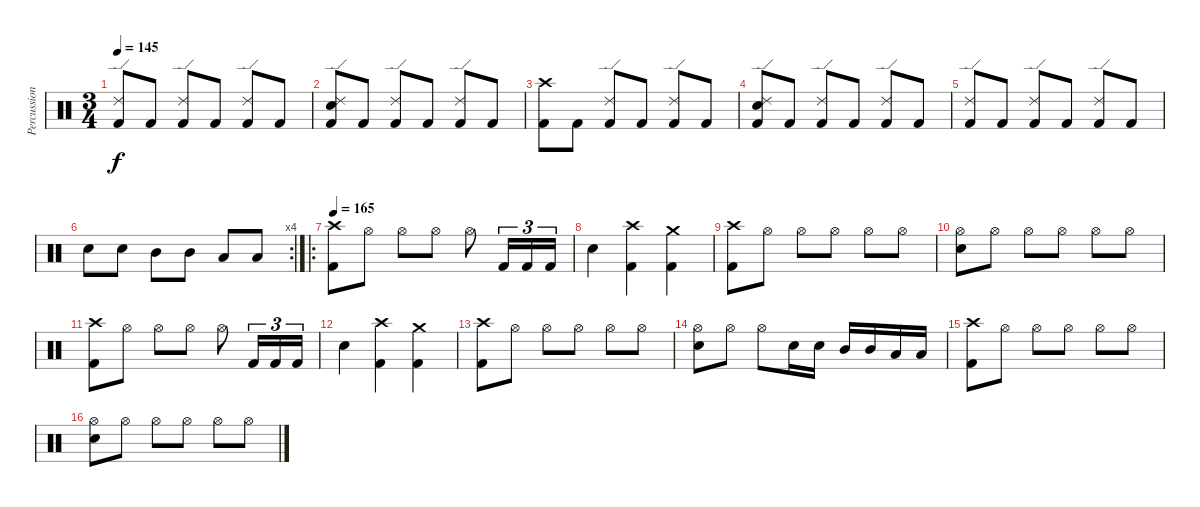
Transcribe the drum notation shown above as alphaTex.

\track ("Percussion" "Percussion") {instrument percussion}
\staff {score}
\articulation defaults
\ts (3 4)
\tempo 145
\clef neutral
\ks c
("Ride (edge) 2" "Kick (hit) 2").8{dy f} "Kick (hit) 2".8 ("Ride (edge) 2" "Kick (hit) 2").8 "Kick (hit) 2".8 ("Ride (edge) 2" "Kick (hit) 2").8 "Kick (hit) 2".8 |
("Ride (edge) 2" "Electric Snare (hit)" "Kick (hit) 2").8 "Kick (hit) 2".8 ("Ride (edge) 2" "Kick (hit) 2").8 "Kick (hit) 2".8 ("Ride (edge) 2" "Kick (hit) 2").8 "Kick (hit) 2".8 |
("Crash high (hit)" "Kick (hit) 2").8 "Kick (hit) 2".8 ("Ride (edge) 2" "Kick (hit) 2").8 "Kick (hit) 2".8 ("Ride (edge) 2" "Kick (hit) 2").8 "Kick (hit) 2".8 |
("Ride (edge) 2" "Electric Snare (hit)" "Kick (hit) 2").8 "Kick (hit) 2".8 ("Ride (edge) 2" "Kick (hit) 2").8 "Kick (hit) 2".8 ("Ride (edge) 2" "Kick (hit) 2").8 "Kick (hit) 2".8 |
("Ride (edge) 2" "Kick (hit) 2").8 "Kick (hit) 2".8 ("Ride (edge) 2" "Kick (hit) 2").8 "Kick (hit) 2".8 ("Ride (edge) 2" "Kick (hit) 2").8 "Kick (hit) 2".8 |
\rc 4 "Electric Snare (hit)".8 "Electric Snare (hit)".8 "Mid Tom (hit)".8 "Mid Tom (hit)".8 "Low Tom (hit)".8 "Low Tom (hit)".8
|
\ro
\tempo 165
("Crash high (hit)" "Kick (hit) 2").8 "Hi-Hat (open)".8 "Hi-Hat (open)".8 "Hi-Hat (open)".8 "Hi-Hat (open)".8 "Kick (hit) 2".16{tu (3 2)} "Kick (hit) 2".16{tu (3 2)} "Kick (hit) 2".16{tu (3 2)} |
"Electric Snare (hit)".4 ("Crash high (hit)" "Kick (hit) 2").4 ("Crash medium (hit)" "Kick (hit) 2").4 |
("Crash high (hit)" "Kick (hit) 2").8 "Hi-Hat (open)".8 "Hi-Hat (open)".8 "Hi-Hat (open)".8 "Hi-Hat (open)".8 "Hi-Hat (open)".8 |
("Hi-Hat (open)" "Electric Snare (hit)").8 "Hi-Hat (open)".8 "Hi-Hat (open)".8 "Hi-Hat (open)".8 "Hi-Hat (open)".8 "Hi-Hat (open)".8 |
("Crash high (hit)" "Kick (hit) 2").8 "Hi-Hat (open)".8 "Hi-Hat (open)".8 "Hi-Hat (open)".8 "Hi-Hat (open)".8 "Kick (hit) 2".16{tu (3 2)} "Kick (hit) 2".16{tu (3 2)} "Kick (hit) 2".16{tu (3 2)} |
"Electric Snare (hit)".4 ("Crash high (hit)" "Kick (hit) 2").4 ("Crash medium (hit)" "Kick (hit) 2").4 |
("Crash high (hit)" "Kick (hit) 2").8 "Hi-Hat (open)".8 "Hi-Hat (open)".8 "Hi-Hat (open)".8 "Hi-Hat (open)".8 "Hi-Hat (open)".8 |
("Hi-Hat (open)" "Electric Snare (hit)").8 "Hi-Hat (open)".8 "Hi-Hat (open)".8 "Electric Snare (hit)".16 "Electric Snare (hit)".16 "Mid Tom (hit)".16 "Mid Tom (hit)".16 "Low Tom (hit)".16 "Low Tom (hit)".16 |
("Crash high (hit)" "Kick (hit) 2").8 "Hi-Hat (open)".8 "Hi-Hat (open)".8 "Hi-Hat (open)".8 "Hi-Hat (open)".8 "Hi-Hat (open)".8 |
("Hi-Hat (open)" "Electric Snare (hit)").8 "Hi-Hat (open)".8 "Hi-Hat (open)".8 "Hi-Hat (open)".8 "Hi-Hat (open)".8 "Hi-Hat (open)".8
